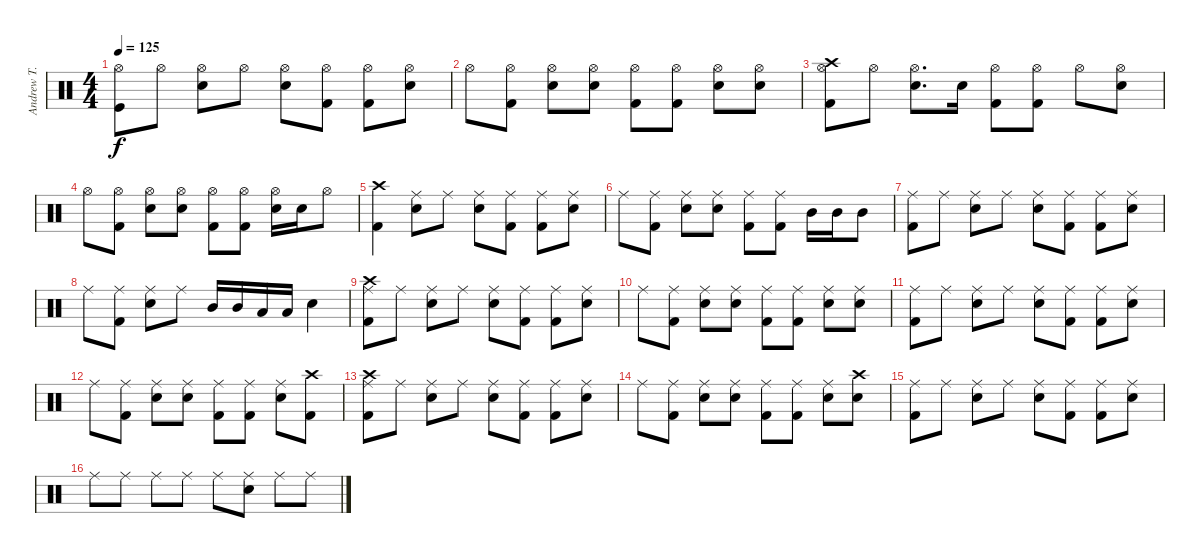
\track ("Andrew T." "Andrew T.") {instrument percussion}
\staff {score}
\articulation defaults
\ts (4 4)
\tempo 125
\clef neutral
\ks c
("Hi-Hat (open)" "Kick (hit)").8{dy f} "Hi-Hat (open)".8 ("Hi-Hat (open)" "Electric Snare (hit)").8 "Hi-Hat (open)".8 ("Hi-Hat (open)" "Electric Snare (hit)").8 ("Hi-Hat (open)" "Kick (hit) 2").8 ("Hi-Hat (open)" "Kick (hit) 2").8 ("Hi-Hat (open)" "Electric Snare (hit)").8 |
"Hi-Hat (open)".8 ("Hi-Hat (open)" "Kick (hit) 2").8 ("Hi-Hat (open)" "Electric Snare (hit)").8 ("Hi-Hat (open)" "Electric Snare (hit)").8 ("Hi-Hat (open)" "Kick (hit) 2").8 ("Hi-Hat (open)" "Kick (hit) 2").8 ("Hi-Hat (open)" "Electric Snare (hit)").8 ("Hi-Hat (open)" "Electric Snare (hit)").8 |
("Hi-Hat (open)" "Kick (hit) 2" "Crash high (hit)").8 "Hi-Hat (open)".8 ("Hi-Hat (open)" "Electric Snare (hit)").8{d} "Electric Snare (hit)".16 ("Hi-Hat (open)" "Kick (hit) 2").8 ("Hi-Hat (open)" "Kick (hit) 2").8 "Hi-Hat (open)".8 ("Hi-Hat (open)" "Electric Snare (hit)").8 |
"Hi-Hat (open)".8 ("Hi-Hat (open)" "Kick (hit) 2").8 ("Hi-Hat (open)" "Electric Snare (hit)").8 ("Hi-Hat (open)" "Electric Snare (hit)").8 ("Hi-Hat (open)" "Kick (hit) 2").8 ("Hi-Hat (open)" "Kick (hit) 2").8 ("Hi-Hat (open)" "Electric Snare (hit)").16 "Electric Snare (hit)".16 "Hi-Hat (open)".8 |
("Crash high (hit)" "Kick (hit) 2").4 ("Ride (middle)" "Electric Snare (hit)").8 "Ride (middle)".8 ("Ride (middle)" "Electric Snare (hit)").8 ("Ride (middle)" "Kick (hit) 2").8 ("Ride (middle)" "Kick (hit) 2").8 ("Ride (middle)" "Electric Snare (hit)").8 |
"Ride (middle)".8 ("Kick (hit) 2" "Ride (middle)").8 ("Electric Snare (hit)" "Ride (middle)").8 ("Electric Snare (hit)" "Ride (middle)").8 ("Kick (hit) 2" "Ride (middle)").8 ("Kick (hit) 2" "Ride (middle)").8 "Mid Tom (hit)".16 "Mid Tom (hit)".16 "Mid Tom (hit)".8 |
("Ride (middle)" "Kick (hit) 2").8 "Ride (middle)".8 ("Ride (middle)" "Electric Snare (hit)").8 "Ride (middle)".8 ("Ride (middle)" "Electric Snare (hit)").8 ("Ride (middle)" "Kick (hit) 2").8 ("Ride (middle)" "Kick (hit) 2").8 ("Ride (middle)" "Electric Snare (hit)").8 |
"Ride (middle)".8 ("Ride (middle)" "Kick (hit) 2").8 ("Ride (middle)" "Electric Snare (hit)").8 "Ride (middle)".8 "Mid Tom (hit)".16 "Mid Tom (hit)".16 "Low Tom (hit)".16 "Low Tom (hit)".16 "Electric Snare (hit)".4 |
("Crash high (hit)" "Ride (middle)" "Kick (hit) 2").8 "Ride (middle)".8 ("Ride (middle)" "Electric Snare (hit)").8 "Ride (middle)".8 ("Ride (middle)" "Electric Snare (hit)").8 ("Ride (middle)" "Kick (hit) 2").8 ("Ride (middle)" "Kick (hit) 2").8 ("Ride (middle)" "Electric Snare (hit)").8 |
"Ride (middle)".8 ("Ride (middle)" "Kick (hit) 2").8 ("Ride (middle)" "Electric Snare (hit)").8 ("Ride (middle)" "Electric Snare (hit)").8 ("Ride (middle)" "Kick (hit) 2").8 ("Ride (middle)" "Kick (hit) 2").8 ("Ride (middle)" "Electric Snare (hit)").8 ("Ride (middle)" "Electric Snare (hit)").8 |
("Ride (middle)" "Kick (hit) 2").8 "Ride (middle)".8 ("Ride (middle)" "Electric Snare (hit)").8 "Ride (middle)".8 ("Ride (middle)" "Electric Snare (hit)").8 ("Ride (middle)" "Kick (hit) 2").8 ("Ride (middle)" "Kick (hit) 2").8 ("Ride (middle)" "Electric Snare (hit)").8 |
"Ride (middle)".8 ("Ride (middle)" "Kick (hit) 2").8 ("Ride (middle)" "Electric Snare (hit)").8 ("Ride (middle)" "Electric Snare (hit)").8 ("Ride (middle)" "Kick (hit) 2").8 ("Ride (middle)" "Kick (hit) 2").8 ("Ride (middle)" "Electric Snare (hit)").8 ("Crash high (hit)" "Kick (hit) 2").8 |
("Ride (middle)" "Crash high (hit)" "Kick (hit) 2").8 "Ride (middle)".8 ("Ride (middle)" "Electric Snare (hit)").8 "Ride (middle)".8 ("Ride (middle)" "Electric Snare (hit)").8 ("Ride (middle)" "Kick (hit) 2").8 ("Ride (middle)" "Kick (hit) 2").8 ("Ride (middle)" "Electric Snare (hit)").8 |
"Ride (middle)".8 ("Ride (middle)" "Kick (hit) 2").8 ("Ride (middle)" "Electric Snare (hit)").8 ("Ride (middle)" "Electric Snare (hit)").8 ("Ride (middle)" "Kick (hit) 2").8 ("Ride (middle)" "Kick (hit) 2").8 ("Ride (middle)" "Electric Snare (hit)").8 ("Crash high (hit)" "Electric Snare (hit)").8 |
("Ride (middle)" "Kick (hit) 2").8 "Ride (middle)".8 ("Ride (middle)" "Electric Snare (hit)").8 "Ride (middle)".8 ("Ride (middle)" "Electric Snare (hit)").8 ("Ride (middle)" "Kick (hit) 2").8 ("Ride (middle)" "Kick (hit) 2").8 ("Ride (middle)" "Electric Snare (hit)").8 |
"Ride (middle)".8 "Ride (middle)".8 "Ride (middle)".8 "Ride (middle)".8 "Ride (middle)".8 ("Ride (middle)" "Electric Snare (hit)").8 "Ride (middle)".8 "Ride (middle)".8
